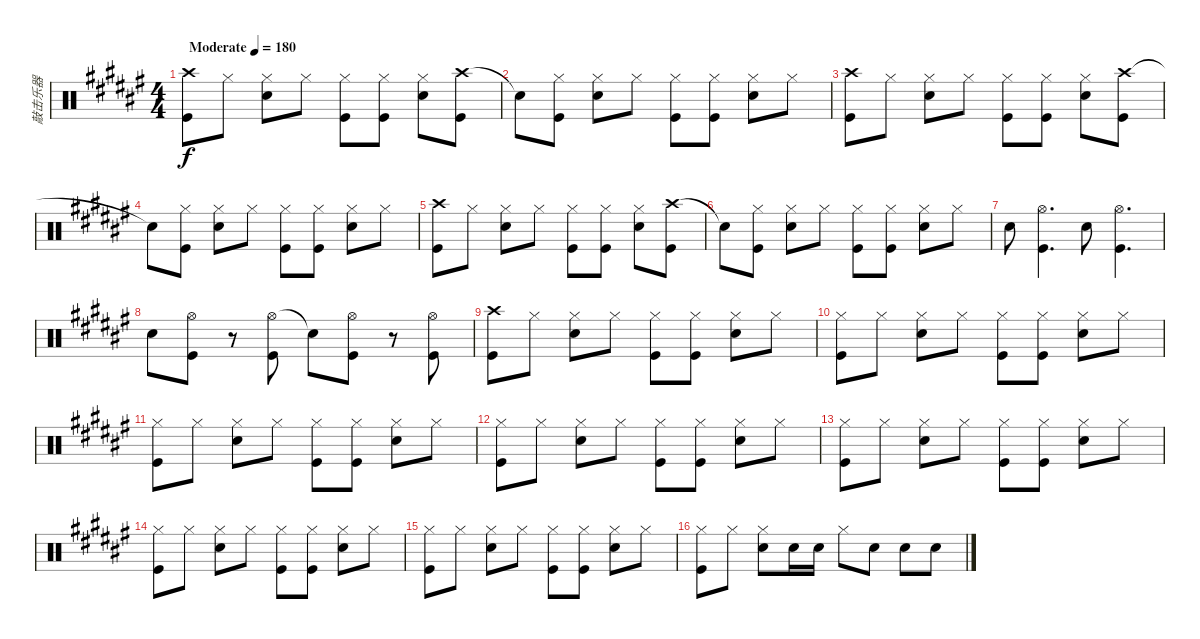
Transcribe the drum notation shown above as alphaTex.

\track ("敲击乐器" "敲击乐器") {instrument percussion}
\staff {score}
\articulation defaults
\ts (4 4)
\tempo (180 "Moderate")
\clef neutral
\ks f#
("Crash high (hit)" "Kick (hit)").8{dy f} "Hi-Hat (closed)".8 ("Hi-Hat (closed)" "Electric Snare (hit)").8 "Hi-Hat (closed)".8 ("Hi-Hat (closed)" "Kick (hit)").8 ("Hi-Hat (closed)" "Kick (hit)").8 ("Hi-Hat (closed)" "Electric Snare (hit)").8 ("Crash high (hit)" "Kick (hit)").8 |
"Snare (hit)"{t}.8 ("Hi-Hat (closed)" "Kick (hit)").8 ("Hi-Hat (closed)" "Electric Snare (hit)").8 "Hi-Hat (closed)".8 ("Hi-Hat (closed)" "Kick (hit)").8 ("Hi-Hat (closed)" "Kick (hit)").8 ("Hi-Hat (closed)" "Electric Snare (hit)").8 "Hi-Hat (closed)".8 |
("Crash high (hit)" "Kick (hit)").8 "Hi-Hat (closed)".8 ("Hi-Hat (closed)" "Electric Snare (hit)").8 "Hi-Hat (closed)".8 ("Hi-Hat (closed)" "Kick (hit)").8 ("Hi-Hat (closed)" "Kick (hit)").8 ("Hi-Hat (closed)" "Electric Snare (hit)").8 ("Crash high (hit)" "Kick (hit)").8 |
"Snare (hit)"{t}.8 ("Hi-Hat (closed)" "Kick (hit)").8 ("Hi-Hat (closed)" "Electric Snare (hit)").8 "Hi-Hat (closed)".8 ("Hi-Hat (closed)" "Kick (hit)").8 ("Hi-Hat (closed)" "Kick (hit)").8 ("Hi-Hat (closed)" "Electric Snare (hit)").8 "Hi-Hat (closed)".8 |
("Crash high (hit)" "Kick (hit)").8 "Hi-Hat (closed)".8 ("Hi-Hat (closed)" "Electric Snare (hit)").8 "Hi-Hat (closed)".8 ("Hi-Hat (closed)" "Kick (hit)").8 ("Hi-Hat (closed)" "Kick (hit)").8 ("Hi-Hat (closed)" "Electric Snare (hit)").8 ("Crash high (hit)" "Kick (hit)").8 |
"Snare (hit)"{t}.8 ("Hi-Hat (closed)" "Kick (hit)").8 ("Hi-Hat (closed)" "Electric Snare (hit)").8 "Hi-Hat (closed)".8 ("Hi-Hat (closed)" "Kick (hit)").8 ("Hi-Hat (closed)" "Kick (hit)").8 ("Hi-Hat (closed)" "Electric Snare (hit)").8 "Hi-Hat (closed)".8 |
"Electric Snare (hit)".8 ("Hi-Hat (open)" "Kick (hit)").4{d} "Electric Snare (hit)".8 ("Hi-Hat (open)" "Kick (hit)").4{d} |
"Electric Snare (hit)".8 ("Hi-Hat (open)" "Kick (hit)").8 r.8 ("Hi-Hat (open)" "Kick (hit)").8 "Snare (hit)"{t}.8 ("Hi-Hat (open)" "Kick (hit)").8 r.8 ("Hi-Hat (open)" "Kick (hit)").8 |
("Crash high (hit)" "Kick (hit)").8 "Hi-Hat (closed)".8 ("Hi-Hat (closed)" "Electric Snare (hit)").8 "Hi-Hat (closed)".8 ("Hi-Hat (closed)" "Kick (hit)").8 ("Hi-Hat (closed)" "Kick (hit)").8 ("Hi-Hat (closed)" "Electric Snare (hit)").8 "Hi-Hat (closed)".8 |
("Hi-Hat (closed)" "Kick (hit)").8 "Hi-Hat (closed)".8 ("Hi-Hat (closed)" "Electric Snare (hit)").8 "Hi-Hat (closed)".8 ("Hi-Hat (closed)" "Kick (hit)").8 ("Hi-Hat (closed)" "Kick (hit)").8 ("Hi-Hat (closed)" "Electric Snare (hit)").8 "Hi-Hat (closed)".8 |
("Hi-Hat (closed)" "Kick (hit)").8 "Hi-Hat (closed)".8 ("Hi-Hat (closed)" "Electric Snare (hit)").8 "Hi-Hat (closed)".8 ("Hi-Hat (closed)" "Kick (hit)").8 ("Hi-Hat (closed)" "Kick (hit)").8 ("Hi-Hat (closed)" "Electric Snare (hit)").8 "Hi-Hat (closed)".8 |
("Hi-Hat (closed)" "Kick (hit)").8 "Hi-Hat (closed)".8 ("Hi-Hat (closed)" "Electric Snare (hit)").8 "Hi-Hat (closed)".8 ("Hi-Hat (closed)" "Kick (hit)").8 ("Hi-Hat (closed)" "Kick (hit)").8 ("Hi-Hat (closed)" "Electric Snare (hit)").8 "Hi-Hat (closed)".8 |
("Hi-Hat (closed)" "Kick (hit)").8 "Hi-Hat (closed)".8 ("Hi-Hat (closed)" "Electric Snare (hit)").8 "Hi-Hat (closed)".8 ("Hi-Hat (closed)" "Kick (hit)").8 ("Hi-Hat (closed)" "Kick (hit)").8 ("Hi-Hat (closed)" "Electric Snare (hit)").8 "Hi-Hat (closed)".8 |
("Hi-Hat (closed)" "Kick (hit)").8 "Hi-Hat (closed)".8 ("Hi-Hat (closed)" "Electric Snare (hit)").8 "Hi-Hat (closed)".8 ("Hi-Hat (closed)" "Kick (hit)").8 ("Hi-Hat (closed)" "Kick (hit)").8 ("Hi-Hat (closed)" "Electric Snare (hit)").8 "Hi-Hat (closed)".8 |
("Hi-Hat (closed)" "Kick (hit)").8 "Hi-Hat (closed)".8 ("Hi-Hat (closed)" "Electric Snare (hit)").8 "Hi-Hat (closed)".8 ("Hi-Hat (closed)" "Kick (hit)").8 ("Hi-Hat (closed)" "Kick (hit)").8 ("Hi-Hat (closed)" "Electric Snare (hit)").8 "Hi-Hat (closed)".8 |
("Hi-Hat (closed)" "Kick (hit)").8 "Hi-Hat (closed)".8 ("Hi-Hat (closed)" "Electric Snare (hit)").8 "Electric Snare (hit)".16 "Electric Snare (hit)".16 "Hi-Hat (closed)".8 "Electric Snare (hit)".8 "Electric Snare (hit)".8 "Electric Snare (hit)".8
